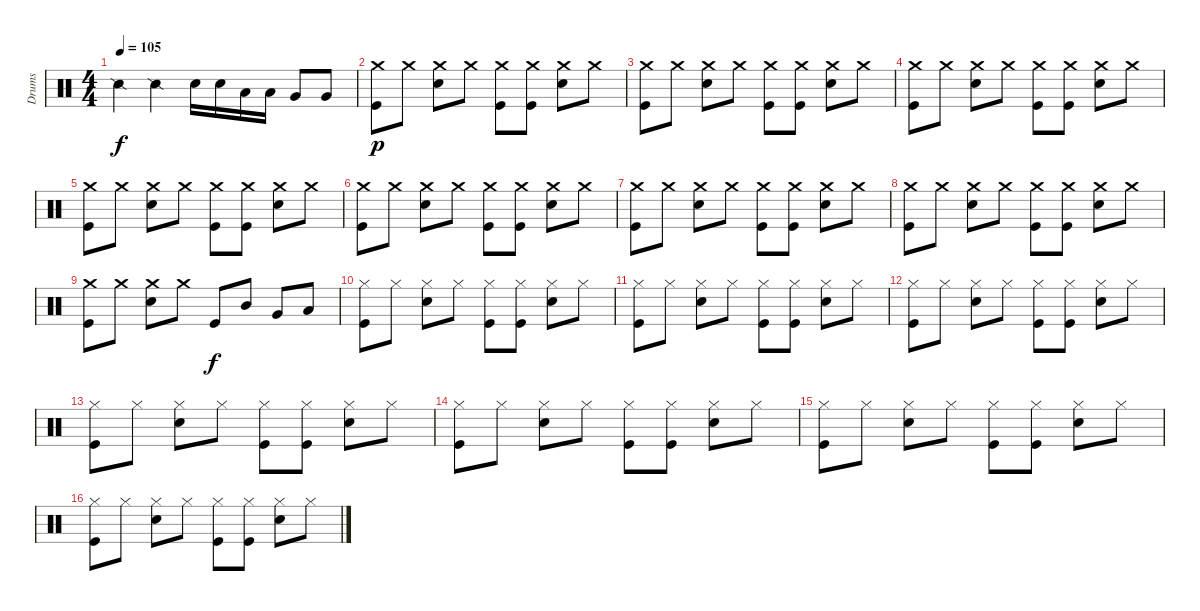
\track ("Drums" "Drums") {instrument percussion}
\staff {score}
\articulation defaults
\ts (4 4)
\tempo 105
\clef neutral
\ks c "Snare (side stick) 2".4{dy f} "Snare (side stick) 2".4 "Electric Snare (hit)".16 "Electric Snare (hit)".16 "Low Floor Tom (hit)".16 "Low Floor Tom (hit)".16 "Very Low Tom (hit)".8 "Very Low Tom (hit)".8
|
("Crash medium (hit)" "Kick (hit)").8{dy p} "Crash medium (hit)".8 ("Crash medium (hit)" "Electric Snare (hit)").8 "Crash medium (hit)".8 ("Crash medium (hit)" "Kick (hit)").8 ("Crash medium (hit)" "Kick (hit)").8 ("Crash medium (hit)" "Electric Snare (hit)").8 "Crash medium (hit)".8 |
("Crash medium (hit)" "Kick (hit)").8 "Crash medium (hit)".8 ("Crash medium (hit)" "Electric Snare (hit)").8 "Crash medium (hit)".8 ("Crash medium (hit)" "Kick (hit)").8 ("Crash medium (hit)" "Kick (hit)").8 ("Crash medium (hit)" "Electric Snare (hit)").8 "Crash medium (hit)".8 |
("Crash medium (hit)" "Kick (hit)").8 "Crash medium (hit)".8 ("Crash medium (hit)" "Electric Snare (hit)").8 "Crash medium (hit)".8 ("Crash medium (hit)" "Kick (hit)").8 ("Crash medium (hit)" "Kick (hit)").8 ("Crash medium (hit)" "Electric Snare (hit)").8 "Crash medium (hit)".8 |
("Crash medium (hit)" "Kick (hit)").8 "Crash medium (hit)".8 ("Crash medium (hit)" "Electric Snare (hit)").8 "Crash medium (hit)".8 ("Crash medium (hit)" "Kick (hit)").8 ("Crash medium (hit)" "Kick (hit)").8 ("Crash medium (hit)" "Electric Snare (hit)").8 "Crash medium (hit)".8 |
("Crash medium (hit)" "Kick (hit)").8 "Crash medium (hit)".8 ("Crash medium (hit)" "Electric Snare (hit)").8 "Crash medium (hit)".8 ("Crash medium (hit)" "Kick (hit)").8 ("Crash medium (hit)" "Kick (hit)").8 ("Crash medium (hit)" "Electric Snare (hit)").8 "Crash medium (hit)".8 |
("Crash medium (hit)" "Kick (hit)").8 "Crash medium (hit)".8 ("Crash medium (hit)" "Electric Snare (hit)").8 "Crash medium (hit)".8 ("Crash medium (hit)" "Kick (hit)").8 ("Crash medium (hit)" "Kick (hit)").8 ("Crash medium (hit)" "Electric Snare (hit)").8 "Crash medium (hit)".8 |
("Crash medium (hit)" "Kick (hit)").8 "Crash medium (hit)".8 ("Crash medium (hit)" "Electric Snare (hit)").8 "Crash medium (hit)".8 ("Crash medium (hit)" "Kick (hit)").8 ("Crash medium (hit)" "Kick (hit)").8 ("Crash medium (hit)" "Electric Snare (hit)").8 "Crash medium (hit)".8 |
("Crash medium (hit)" "Kick (hit)").8 "Crash medium (hit)".8 ("Crash medium (hit)" "Electric Snare (hit)").8 "Crash medium (hit)".8 "Kick (hit)".8{dy f} "Mid Tom (hit)".8 "Very Low Tom (hit)".8 "Low Floor Tom (hit)".8 |
("Hi-Hat (closed)" "Kick (hit)").8 "Hi-Hat (closed)".8 ("Hi-Hat (closed)" "Electric Snare (hit)").8 "Hi-Hat (closed)".8 ("Hi-Hat (closed)" "Kick (hit)").8 ("Hi-Hat (closed)" "Kick (hit)").8 ("Hi-Hat (closed)" "Electric Snare (hit)").8 "Hi-Hat (closed)".8 |
("Hi-Hat (closed)" "Kick (hit)").8 "Hi-Hat (closed)".8 ("Hi-Hat (closed)" "Electric Snare (hit)").8 "Hi-Hat (closed)".8 ("Hi-Hat (closed)" "Kick (hit)").8 ("Hi-Hat (closed)" "Kick (hit)").8 ("Hi-Hat (closed)" "Electric Snare (hit)").8 "Hi-Hat (closed)".8 |
("Hi-Hat (closed)" "Kick (hit)").8 "Hi-Hat (closed)".8 ("Hi-Hat (closed)" "Electric Snare (hit)").8 "Hi-Hat (closed)".8 ("Hi-Hat (closed)" "Kick (hit)").8 ("Hi-Hat (closed)" "Kick (hit)").8 ("Hi-Hat (closed)" "Electric Snare (hit)").8 "Hi-Hat (closed)".8 |
("Hi-Hat (closed)" "Kick (hit)").8 "Hi-Hat (closed)".8 ("Hi-Hat (closed)" "Electric Snare (hit)").8 "Hi-Hat (closed)".8 ("Hi-Hat (closed)" "Kick (hit)").8 ("Hi-Hat (closed)" "Kick (hit)").8 ("Hi-Hat (closed)" "Electric Snare (hit)").8 "Hi-Hat (closed)".8 |
("Hi-Hat (closed)" "Kick (hit)").8 "Hi-Hat (closed)".8 ("Hi-Hat (closed)" "Electric Snare (hit)").8 "Hi-Hat (closed)".8 ("Hi-Hat (closed)" "Kick (hit)").8 ("Hi-Hat (closed)" "Kick (hit)").8 ("Hi-Hat (closed)" "Electric Snare (hit)").8 "Hi-Hat (closed)".8 |
("Hi-Hat (closed)" "Kick (hit)").8 "Hi-Hat (closed)".8 ("Hi-Hat (closed)" "Electric Snare (hit)").8 "Hi-Hat (closed)".8 ("Hi-Hat (closed)" "Kick (hit)").8 ("Hi-Hat (closed)" "Kick (hit)").8 ("Hi-Hat (closed)" "Electric Snare (hit)").8 "Hi-Hat (closed)".8 |
("Hi-Hat (closed)" "Kick (hit)").8 "Hi-Hat (closed)".8 ("Hi-Hat (closed)" "Electric Snare (hit)").8 "Hi-Hat (closed)".8 ("Hi-Hat (closed)" "Kick (hit)").8 ("Hi-Hat (closed)" "Kick (hit)").8 ("Hi-Hat (closed)" "Electric Snare (hit)").8 "Hi-Hat (closed)".8
